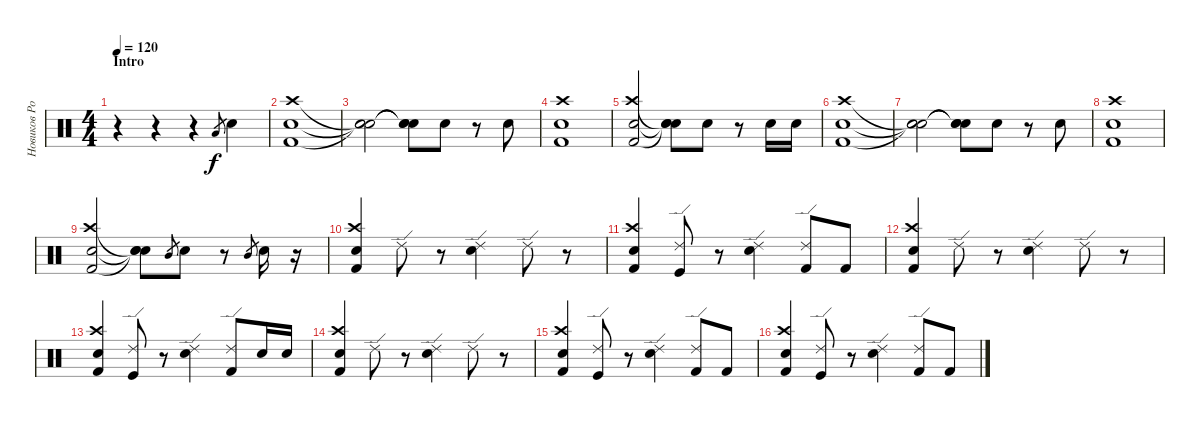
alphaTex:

\track ("Новиков Роман ( Ударные )" "Новиков Ро") {instrument percussion}
\staff {score}
\articulation defaults
\ts (4 4)
\section ("" "Intro")
\tempo 120
\clef neutral
\ks c
r.4{dy f} r.4 r.4 "Low Tom (hit)"{h}.8{gr} "Snare (hit) 2".4 |
("Snare (hit) 2" "Crash high (hit)" "Kick (hit) 2").1 |
("Snare (hit)"{t} "Snare (hit)"{t} "Snare (hit)"{t}).2 ("Snare (hit) 2"{t} "Snare (hit)"{t} "Snare (hit)"{t}).8 "Snare (hit) 2".8 r.8 "Snare (hit) 2".8 |
("Snare (hit) 2" "Crash high (hit)" "Kick (hit) 2").1 |
("Snare (hit) 2" "Crash high (hit)" "Kick (hit) 2").2 ("Snare (hit) 2"{t} "Snare (hit)"{t} "Snare (hit)"{t}).8 "Snare (hit) 2".8 r.8 "Snare (hit) 2".16 "Snare (hit) 2".16 |
("Snare (hit) 2" "Crash high (hit)" "Kick (hit) 2").1 |
("Snare (hit)"{t} "Snare (hit)"{t} "Snare (hit)"{t}).2 ("Snare (hit) 2"{t} "Snare (hit)"{t} "Snare (hit)"{t}).8 "Snare (hit) 2".8 r.8 "Snare (hit) 2".8 |
("Snare (hit) 2" "Crash high (hit)" "Kick (hit) 2").1 |
("Snare (hit) 2" "Crash high (hit)" "Kick (hit) 2").2 ("Snare (hit) 2"{t} "Snare (hit)"{t} "Snare (hit)"{t}).8 "Mid Tom (hit)"{h}.8{gr} "Snare (hit) 2".8 r.8 "Mid Tom (hit)"{h}.8{gr} "Snare (hit) 2".16 r.16 |
("Snare (hit) 2" "Crash high (hit)" "Kick (hit) 2").4 "Ride (edge) 2".8 r.8 ("Electric Snare (hit)" "Ride (edge) 2").4 "Ride (edge) 2".8 r.8 |
("Snare (hit) 2" "Crash high (hit)" "Kick (hit) 2").4 ("Kick (hit)" "Ride (edge) 2").8 r.8 ("Electric Snare (hit)" "Ride (edge) 2").4 ("Kick (hit) 2" "Ride (edge) 2").8 "Kick (hit) 2".8 |
("Snare (hit) 2" "Crash high (hit)" "Kick (hit) 2").4 "Ride (edge) 2".8 r.8 ("Electric Snare (hit)" "Ride (edge) 2").4 "Ride (edge) 2".8 r.8 |
("Snare (hit) 2" "Crash high (hit)" "Kick (hit) 2").4 ("Kick (hit)" "Ride (edge) 2").8 r.8 ("Electric Snare (hit)" "Ride (edge) 2").4 ("Kick (hit) 2" "Ride (edge) 2").8 "Snare (hit) 2".16 "Snare (hit) 2".16 |
("Snare (hit) 2" "Crash high (hit)" "Kick (hit) 2").4 "Ride (edge) 2".8 r.8 ("Electric Snare (hit)" "Ride (edge) 2").4 "Ride (edge) 2".8 r.8 |
("Snare (hit) 2" "Crash high (hit)" "Kick (hit) 2").4 ("Kick (hit)" "Ride (edge) 2").8 r.8 ("Electric Snare (hit)" "Ride (edge) 2").4 ("Kick (hit) 2" "Ride (edge) 2").8 "Kick (hit) 2".8 |
("Snare (hit) 2" "Crash high (hit)" "Kick (hit) 2").4 ("Kick (hit)" "Ride (edge) 2").8 r.8 ("Electric Snare (hit)" "Ride (edge) 2").4 ("Kick (hit) 2" "Ride (edge) 2").8 "Kick (hit) 2".8
